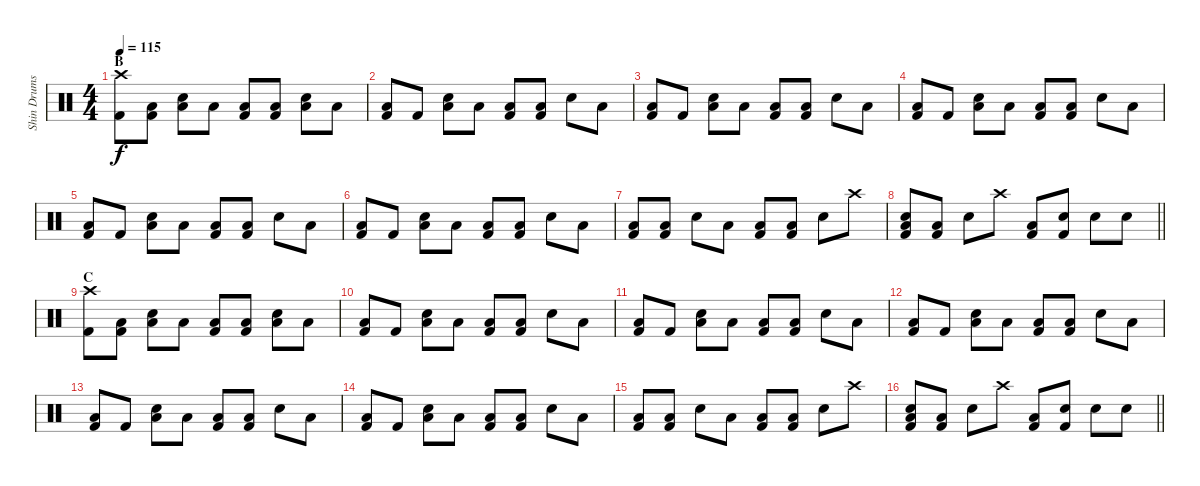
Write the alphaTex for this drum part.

\track ("Shin Drums" "Shin Drums") {instrument percussion}
\staff {score}
\articulation defaults
\ts (4 4)
\section ("" "B")
\tempo 115
\clef neutral
\ks c
("Crash high (hit)" "Kick (hit) 2").8{dy f} ("Low Floor Tom (hit)" "Kick (hit) 2").8 ("Low Floor Tom (hit)" "Snare (hit) 2").8 "Low Floor Tom (hit)".8 ("Low Floor Tom (hit)" "Kick (hit) 2").8 ("Low Floor Tom (hit)" "Kick (hit) 2").8 ("Low Floor Tom (hit)" "Snare (hit) 2").8 "Low Floor Tom (hit)".8 |
("Low Floor Tom (hit)" "Kick (hit) 2").8 "Kick (hit) 2".8 ("Low Floor Tom (hit)" "Snare (hit) 2").8 "Low Floor Tom (hit)".8 ("Low Floor Tom (hit)" "Kick (hit) 2").8 ("Low Floor Tom (hit)" "Kick (hit) 2").8 "Snare (hit) 2".8 "Low Floor Tom (hit)".8 |
("Low Floor Tom (hit)" "Kick (hit) 2").8 "Kick (hit) 2".8 ("Low Floor Tom (hit)" "Snare (hit) 2").8 "Low Floor Tom (hit)".8 ("Low Floor Tom (hit)" "Kick (hit) 2").8 ("Low Floor Tom (hit)" "Kick (hit) 2").8 "Snare (hit) 2".8 "Low Floor Tom (hit)".8 |
("Low Floor Tom (hit)" "Kick (hit) 2").8 "Kick (hit) 2".8 ("Low Floor Tom (hit)" "Snare (hit) 2").8 "Low Floor Tom (hit)".8 ("Low Floor Tom (hit)" "Kick (hit) 2").8 ("Low Floor Tom (hit)" "Kick (hit) 2").8 "Snare (hit) 2".8 "Low Floor Tom (hit)".8 |
("Low Floor Tom (hit)" "Kick (hit) 2").8 "Kick (hit) 2".8 ("Low Floor Tom (hit)" "Snare (hit) 2").8 "Low Floor Tom (hit)".8 ("Low Floor Tom (hit)" "Kick (hit) 2").8 ("Low Floor Tom (hit)" "Kick (hit) 2").8 "Snare (hit) 2".8 "Low Floor Tom (hit)".8 |
("Low Floor Tom (hit)" "Kick (hit) 2").8 "Kick (hit) 2".8 ("Low Floor Tom (hit)" "Snare (hit) 2").8 "Low Floor Tom (hit)".8 ("Low Floor Tom (hit)" "Kick (hit) 2").8 ("Low Floor Tom (hit)" "Kick (hit) 2").8 "Snare (hit) 2".8 "Low Floor Tom (hit)".8 |
("Low Floor Tom (hit)" "Kick (hit) 2").8 ("Low Floor Tom (hit)" "Kick (hit) 2").8 "Snare (hit) 2".8 "Low Floor Tom (hit)".8 ("Low Floor Tom (hit)" "Kick (hit) 2").8 ("Low Floor Tom (hit)" "Kick (hit) 2").8 "Snare (hit) 2".8 "Crash high (hit)".8 |
\barLineRight lightlight
("Low Floor Tom (hit)" "Snare (hit) 2" "Kick (hit) 2").8 ("Low Floor Tom (hit)" "Kick (hit) 2").8 "Snare (hit) 2".8 "Crash high (hit)".8 ("Low Floor Tom (hit)" "Kick (hit) 2").8 ("Snare (hit) 2" "Kick (hit) 2").8 "Snare (hit) 2".8 "Snare (hit) 2".8 |
\section ("" "C")
("Crash high (hit)" "Kick (hit) 2").8 ("Low Floor Tom (hit)" "Kick (hit) 2").8 ("Low Floor Tom (hit)" "Snare (hit) 2").8 "Low Floor Tom (hit)".8 ("Low Floor Tom (hit)" "Kick (hit) 2").8 ("Low Floor Tom (hit)" "Kick (hit) 2").8 ("Low Floor Tom (hit)" "Snare (hit) 2").8 "Low Floor Tom (hit)".8 |
("Low Floor Tom (hit)" "Kick (hit) 2").8 "Kick (hit) 2".8 ("Low Floor Tom (hit)" "Snare (hit) 2").8 "Low Floor Tom (hit)".8 ("Low Floor Tom (hit)" "Kick (hit) 2").8 ("Low Floor Tom (hit)" "Kick (hit) 2").8 "Snare (hit) 2".8 "Low Floor Tom (hit)".8 |
("Low Floor Tom (hit)" "Kick (hit) 2").8 "Kick (hit) 2".8 ("Low Floor Tom (hit)" "Snare (hit) 2").8 "Low Floor Tom (hit)".8 ("Low Floor Tom (hit)" "Kick (hit) 2").8 ("Low Floor Tom (hit)" "Kick (hit) 2").8 "Snare (hit) 2".8 "Low Floor Tom (hit)".8 |
("Low Floor Tom (hit)" "Kick (hit) 2").8 "Kick (hit) 2".8 ("Low Floor Tom (hit)" "Snare (hit) 2").8 "Low Floor Tom (hit)".8 ("Low Floor Tom (hit)" "Kick (hit) 2").8 ("Low Floor Tom (hit)" "Kick (hit) 2").8 "Snare (hit) 2".8 "Low Floor Tom (hit)".8 |
("Low Floor Tom (hit)" "Kick (hit) 2").8 "Kick (hit) 2".8 ("Low Floor Tom (hit)" "Snare (hit) 2").8 "Low Floor Tom (hit)".8 ("Low Floor Tom (hit)" "Kick (hit) 2").8 ("Low Floor Tom (hit)" "Kick (hit) 2").8 "Snare (hit) 2".8 "Low Floor Tom (hit)".8 |
("Low Floor Tom (hit)" "Kick (hit) 2").8 "Kick (hit) 2".8 ("Low Floor Tom (hit)" "Snare (hit) 2").8 "Low Floor Tom (hit)".8 ("Low Floor Tom (hit)" "Kick (hit) 2").8 ("Low Floor Tom (hit)" "Kick (hit) 2").8 "Snare (hit) 2".8 "Low Floor Tom (hit)".8 |
("Low Floor Tom (hit)" "Kick (hit) 2").8 ("Low Floor Tom (hit)" "Kick (hit) 2").8 "Snare (hit) 2".8 "Low Floor Tom (hit)".8 ("Low Floor Tom (hit)" "Kick (hit) 2").8 ("Low Floor Tom (hit)" "Kick (hit) 2").8 "Snare (hit) 2".8 "Crash high (hit)".8 |
\barLineRight lightlight
("Low Floor Tom (hit)" "Snare (hit) 2" "Kick (hit) 2").8 ("Low Floor Tom (hit)" "Kick (hit) 2").8 "Snare (hit) 2".8 "Crash high (hit)".8 ("Low Floor Tom (hit)" "Kick (hit) 2").8 ("Snare (hit) 2" "Kick (hit) 2").8 "Snare (hit) 2".8 "Snare (hit) 2".8
